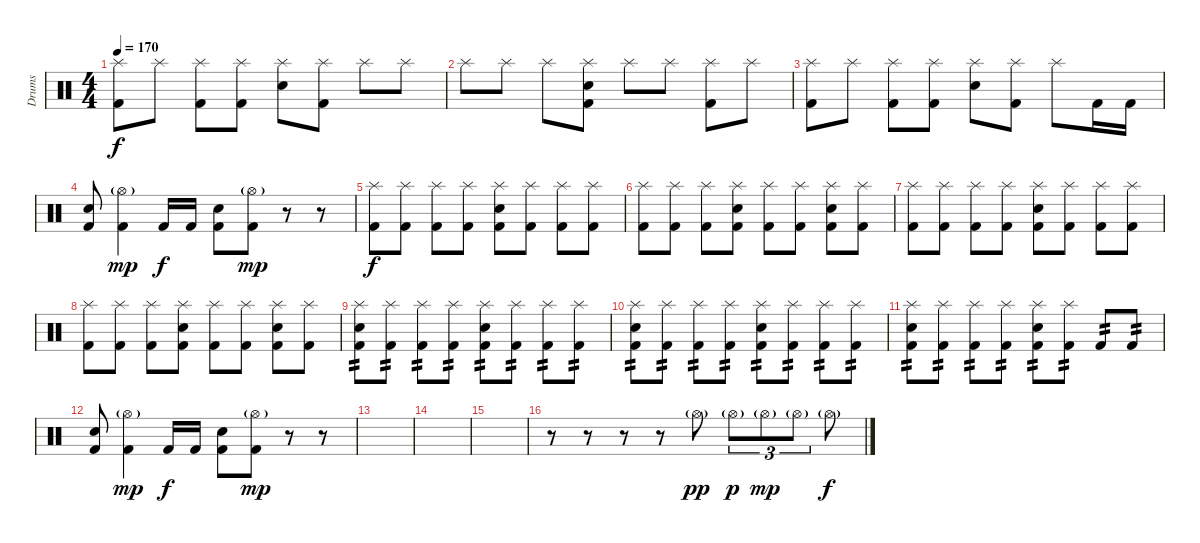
\track ("Drums" "Drums") {instrument percussion}
\staff {score}
\articulation defaults
\ts (4 4)
\tempo 170
\clef neutral
\ks c
("Splash (hit)" "Kick (hit) 2").8{dy f} "Splash (hit)".8 ("Splash (hit)" "Kick (hit) 2").8 ("Splash (hit)" "Kick (hit) 2").8 ("Splash (hit)" "Snare (hit) 2").8 ("Splash (hit)" "Kick (hit) 2").8 "Splash (hit)".8 "Splash (hit)".8 |
"Splash (hit)".8 "Splash (hit)".8 "Splash (hit)".8 ("Splash (hit)" "Snare (hit) 2" "Kick (hit) 2").8 "Splash (hit)".8 "Splash (hit)".8 ("Splash (hit)" "Kick (hit) 2").8 "Splash (hit)".8 |
("Splash (hit)" "Kick (hit) 2").8 "Splash (hit)".8 ("Splash (hit)" "Kick (hit) 2").8 ("Splash (hit)" "Kick (hit) 2").8 ("Splash (hit)" "Snare (hit) 2").8 ("Splash (hit)" "Kick (hit) 2").8 "Splash (hit)".8 "Kick (hit) 2".16 "Kick (hit) 2".16 |
("Snare (hit) 2" "Kick (hit) 2").8 ("Hi-Hat (open)"{g} "Kick (hit) 2").4{dy mp} "Kick (hit) 2".16{dy f} "Kick (hit) 2".16 ("Snare (hit) 2" "Kick (hit) 2").8 ("Hi-Hat (open)"{g} "Kick (hit) 2").8{dy mp} r.8 r.8 |
("Splash (hit)" "Kick (hit) 2").8{dy f} ("Splash (hit)" "Kick (hit) 2").8 ("Splash (hit)" "Kick (hit) 2").8 ("Splash (hit)" "Kick (hit) 2").8 ("Splash (hit)" "Snare (hit) 2" "Kick (hit) 2").8 ("Splash (hit)" "Kick (hit) 2").8 ("Splash (hit)" "Kick (hit) 2").8 ("Splash (hit)" "Kick (hit) 2").8 |
("Splash (hit)" "Kick (hit) 2").8 ("Splash (hit)" "Kick (hit) 2").8 ("Splash (hit)" "Kick (hit) 2").8 ("Splash (hit)" "Snare (hit) 2" "Kick (hit) 2").8 ("Splash (hit)" "Kick (hit) 2").8 ("Splash (hit)" "Kick (hit) 2").8 ("Splash (hit)" "Snare (hit) 2" "Kick (hit) 2").8 ("Splash (hit)" "Kick (hit) 2").8 |
("Splash (hit)" "Kick (hit) 2").8 ("Splash (hit)" "Kick (hit) 2").8 ("Splash (hit)" "Kick (hit) 2").8 ("Splash (hit)" "Kick (hit) 2").8 ("Splash (hit)" "Snare (hit) 2" "Kick (hit) 2").8 ("Splash (hit)" "Kick (hit) 2").8 ("Splash (hit)" "Kick (hit) 2").8 ("Splash (hit)" "Kick (hit) 2").8 |
("Splash (hit)" "Kick (hit) 2").8 ("Splash (hit)" "Kick (hit) 2").8 ("Splash (hit)" "Kick (hit) 2").8 ("Splash (hit)" "Snare (hit) 2" "Kick (hit) 2").8 ("Splash (hit)" "Kick (hit) 2").8 ("Splash (hit)" "Kick (hit) 2").8 ("Splash (hit)" "Snare (hit) 2" "Kick (hit) 2").8 ("Splash (hit)" "Kick (hit) 2").8 |
("Splash (hit)" "Snare (hit) 2" "Kick (hit) 2").8{tp 2} ("Splash (hit)" "Kick (hit) 2").8{tp 2} ("Splash (hit)" "Kick (hit) 2").8{tp 2} ("Splash (hit)" "Kick (hit) 2").8{tp 2} ("Splash (hit)" "Snare (hit) 2" "Kick (hit) 2").8{tp 2} ("Splash (hit)" "Kick (hit) 2").8{tp 2} ("Splash (hit)" "Kick (hit) 2").8{tp 2} ("Splash (hit)" "Kick (hit) 2").8{tp 2} |
("Splash (hit)" "Snare (hit) 2" "Kick (hit) 2").8{tp 2} ("Splash (hit)" "Kick (hit) 2").8{tp 2} ("Splash (hit)" "Kick (hit) 2").8{tp 2} ("Splash (hit)" "Kick (hit) 2").8{tp 2} ("Splash (hit)" "Snare (hit) 2" "Kick (hit) 2").8{tp 2} ("Splash (hit)" "Kick (hit) 2").8{tp 2} ("Splash (hit)" "Kick (hit) 2").8{tp 2} ("Splash (hit)" "Kick (hit) 2").8{tp 2} |
("Splash (hit)" "Snare (hit) 2" "Kick (hit) 2").8{tp 2} ("Splash (hit)" "Kick (hit) 2").8{tp 2} ("Splash (hit)" "Kick (hit) 2").8{tp 2} ("Splash (hit)" "Kick (hit) 2").8{tp 2} ("Splash (hit)" "Snare (hit) 2" "Kick (hit) 2").8{tp 2} ("Splash (hit)" "Kick (hit) 2").8{tp 2} "Kick (hit) 2".8{tp 2} "Kick (hit) 2".8{tp 2} |
("Snare (hit) 2" "Kick (hit) 2").8 ("Hi-Hat (open)"{g} "Kick (hit) 2").4{dy mp} "Kick (hit) 2".16{dy f} "Kick (hit) 2".16 ("Snare (hit) 2" "Kick (hit) 2").8 ("Hi-Hat (open)"{g} "Kick (hit) 2").8{dy mp} r.8 r.8 |
|
|
|
r.8 r.8 r.8 r.8 "Hi-Hat (open)"{g}.8{dy pp} "Hi-Hat (open)"{g}.8{tu (3 2) dy p} "Hi-Hat (open)"{g}.8{tu (3 2) dy mp} "Hi-Hat (open)"{g}.8{tu (3 2)} "Hi-Hat (open)"{g}.8{dy f}
